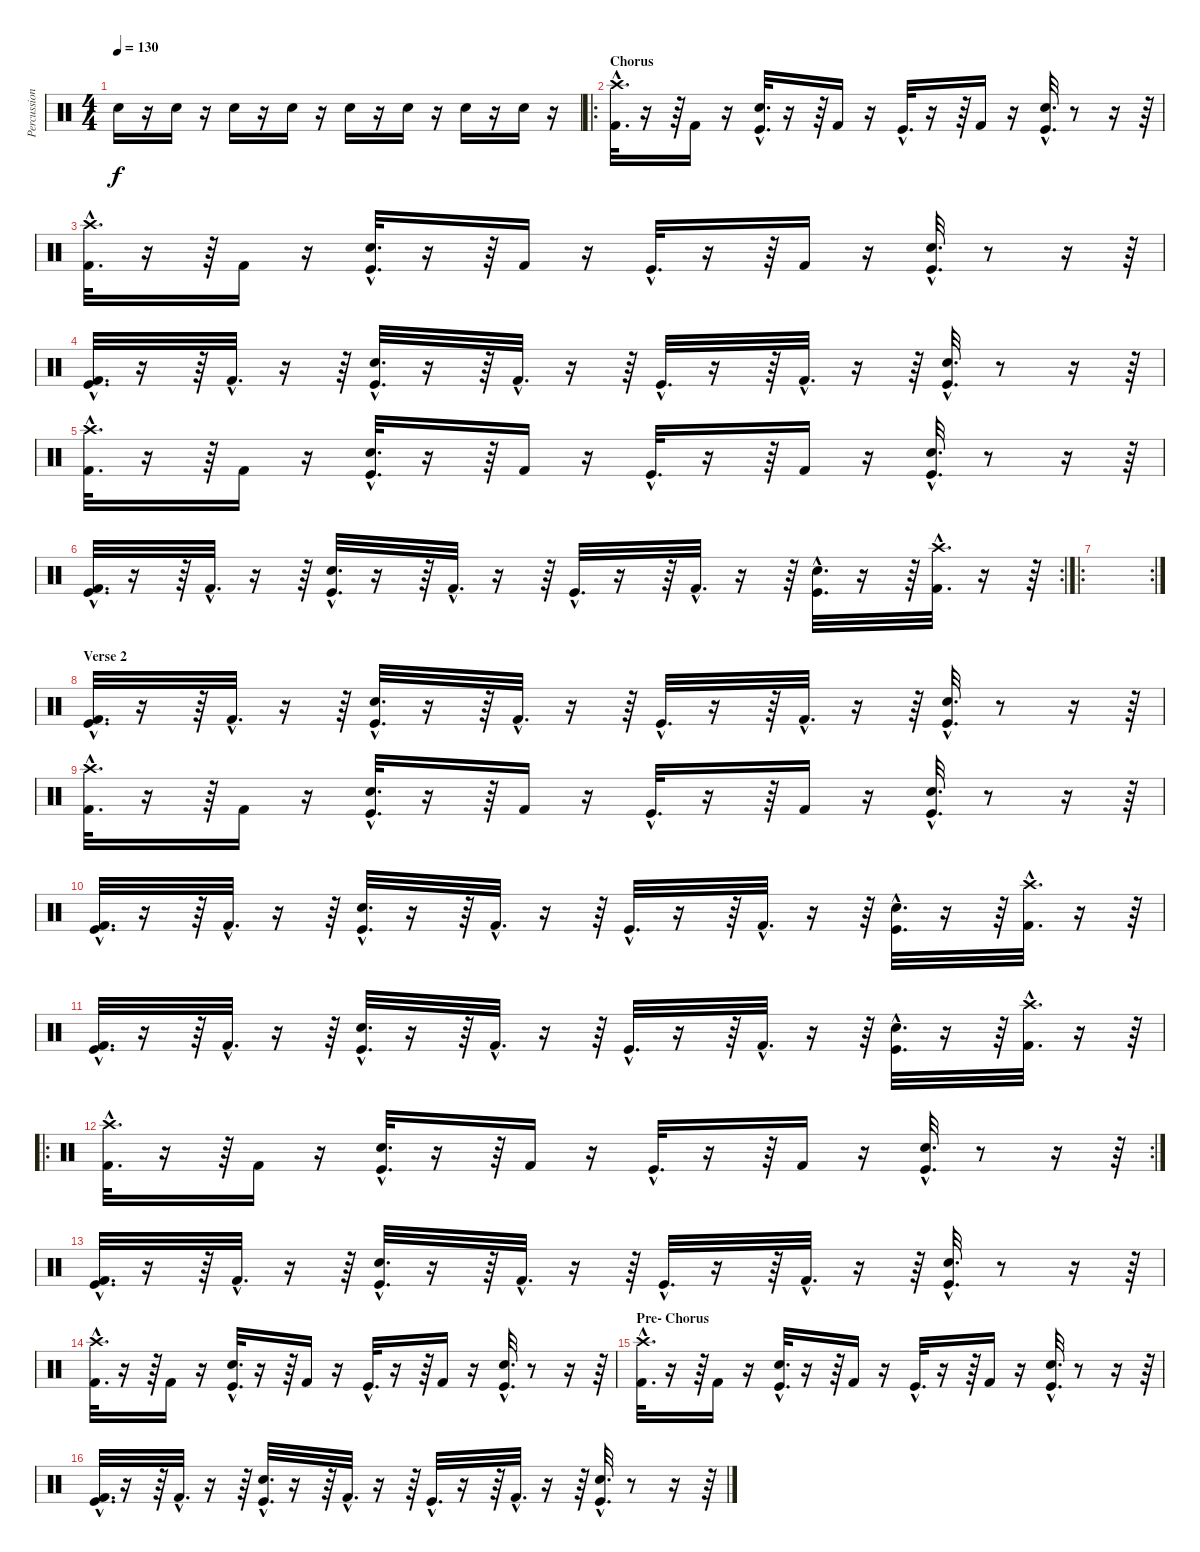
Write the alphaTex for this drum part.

\track ("Percussion" "Percussion") {instrument percussion}
\staff {score}
\articulation defaults
\ts (4 4)
\tempo 130
\clef neutral
\ks c "Snare (hit) 2".16{dy f}
r.16 "Snare (hit) 2".16 r.16 "Snare (hit) 2".16 r.16 "Snare (hit) 2".16 r.16 "Snare (hit) 2".16 r.16 "Snare (hit) 2".16 r.16 "Snare (hit) 2".16 r.16 "Snare (hit) 2".16 r.16 |
\ro
\section ("" "Chorus")
("Kick (hit) 2"{hac} "Crash high (hit)"{hac}).32{d} r.16 r.64 "Kick (hit) 2".16 r.16 ("Kick (hit)"{hac} "Snare (hit) 2"{hac}).32{d} r.16 r.64 "Kick (hit) 2".16 r.16 "Kick (hit)"{hac}.32{d} r.16 r.64 "Kick (hit) 2".16 r.16 ("Kick (hit)"{hac} "Snare (hit) 2"{hac}).32{d} r.8 r.16 r.64 |
("Kick (hit) 2"{hac} "Crash high (hit)"{hac}).32{d} r.16 r.64 "Kick (hit) 2".16 r.16 ("Kick (hit)"{hac} "Snare (hit) 2"{hac}).32{d} r.16 r.64 "Kick (hit) 2".16 r.16 "Kick (hit)"{hac}.32{d} r.16 r.64 "Kick (hit) 2".16 r.16 ("Kick (hit)"{hac} "Snare (hit) 2"{hac}).32{d} r.8 r.16 r.64 |
("Kick (hit)"{hac} "Kick (hit) 2"{hac}).32{d} r.16 r.64 "Kick (hit) 2"{hac}.32{d} r.16 r.64 ("Snare (hit) 2"{hac} "Kick (hit)"{hac}).32{d} r.16 r.64 "Kick (hit) 2"{hac}.32{d} r.16 r.64 "Kick (hit)"{hac}.32{d} r.16 r.64 "Kick (hit) 2"{hac}.32{d} r.16 r.64 ("Snare (hit) 2"{hac} "Kick (hit)"{hac}).32{d} r.8 r.16 r.64 |
("Kick (hit) 2"{hac} "Crash high (hit)"{hac}).32{d} r.16 r.64 "Kick (hit) 2".16 r.16 ("Kick (hit)"{hac} "Snare (hit) 2"{hac}).32{d} r.16 r.64 "Kick (hit) 2".16 r.16 "Kick (hit)"{hac}.32{d} r.16 r.64 "Kick (hit) 2".16 r.16 ("Kick (hit)"{hac} "Snare (hit) 2"{hac}).32{d} r.8 r.16 r.64 |
\rc 2
\section ("" "")
("Kick (hit)"{hac} "Kick (hit) 2"{hac}).32{d} r.16 r.64 "Kick (hit) 2"{hac}.32{d} r.16 r.64 ("Snare (hit) 2"{hac} "Kick (hit)"{hac}).32{d} r.16 r.64 "Kick (hit) 2"{hac}.32{d} r.16 r.64 "Kick (hit)"{hac}.32{d} r.16 r.64 "Kick (hit) 2"{hac}.32{d} r.16 r.64 ("Snare (hit) 2"{hac} "Kick (hit)"{hac}).32{d} r.16 r.64 ("Kick (hit) 2"{hac} "Crash high (hit)"{hac}).32{d} r.16 r.64 |
\ro
\rc 2
|
\section ("" "Verse 2")
("Kick (hit)"{hac} "Kick (hit) 2"{hac}).32{d} r.16 r.64 "Kick (hit) 2"{hac}.32{d} r.16 r.64 ("Snare (hit) 2"{hac} "Kick (hit)"{hac}).32{d} r.16 r.64 "Kick (hit) 2"{hac}.32{d} r.16 r.64 "Kick (hit)"{hac}.32{d} r.16 r.64 "Kick (hit) 2"{hac}.32{d} r.16 r.64 ("Snare (hit) 2"{hac} "Kick (hit)"{hac}).32{d} r.8 r.16 r.64 |
("Kick (hit) 2"{hac} "Crash high (hit)"{hac}).32{d} r.16 r.64 "Kick (hit) 2".16 r.16 ("Kick (hit)"{hac} "Snare (hit) 2"{hac}).32{d} r.16 r.64 "Kick (hit) 2".16 r.16 "Kick (hit)"{hac}.32{d} r.16 r.64 "Kick (hit) 2".16 r.16 ("Kick (hit)"{hac} "Snare (hit) 2"{hac}).32{d} r.8 r.16 r.64 |
("Kick (hit)"{hac} "Kick (hit) 2"{hac}).32{d} r.16 r.64 "Kick (hit) 2"{hac}.32{d} r.16 r.64 ("Snare (hit) 2"{hac} "Kick (hit)"{hac}).32{d} r.16 r.64 "Kick (hit) 2"{hac}.32{d} r.16 r.64 "Kick (hit)"{hac}.32{d} r.16 r.64 "Kick (hit) 2"{hac}.32{d} r.16 r.64 ("Snare (hit) 2"{hac} "Kick (hit)"{hac}).32{d} r.16 r.64 ("Kick (hit) 2"{hac} "Crash high (hit)"{hac}).32{d} r.16 r.64 |
("Kick (hit)"{hac} "Kick (hit) 2"{hac}).32{d} r.16 r.64 "Kick (hit) 2"{hac}.32{d} r.16 r.64 ("Snare (hit) 2"{hac} "Kick (hit)"{hac}).32{d} r.16 r.64 "Kick (hit) 2"{hac}.32{d} r.16 r.64 "Kick (hit)"{hac}.32{d} r.16 r.64 "Kick (hit) 2"{hac}.32{d} r.16 r.64 ("Snare (hit) 2"{hac} "Kick (hit)"{hac}).32{d} r.16 r.64 ("Kick (hit) 2"{hac} "Crash high (hit)"{hac}).32{d} r.16 r.64 |
\ro
\rc 2
("Kick (hit) 2"{hac} "Crash high (hit)"{hac}).32{d} r.16 r.64 "Kick (hit) 2".16 r.16 ("Kick (hit)"{hac} "Snare (hit) 2"{hac}).32{d} r.16 r.64 "Kick (hit) 2".16 r.16 "Kick (hit)"{hac}.32{d} r.16 r.64 "Kick (hit) 2".16 r.16 ("Kick (hit)"{hac} "Snare (hit) 2"{hac}).32{d} r.8 r.16 r.64 |
("Kick (hit)"{hac} "Kick (hit) 2"{hac}).32{d} r.16 r.64 "Kick (hit) 2"{hac}.32{d} r.16 r.64 ("Snare (hit) 2"{hac} "Kick (hit)"{hac}).32{d} r.16 r.64 "Kick (hit) 2"{hac}.32{d} r.16 r.64 "Kick (hit)"{hac}.32{d} r.16 r.64 "Kick (hit) 2"{hac}.32{d} r.16 r.64 ("Snare (hit) 2"{hac} "Kick (hit)"{hac}).32{d} r.8 r.16 r.64 |
("Kick (hit) 2"{hac} "Crash high (hit)"{hac}).32{d} r.16 r.64 "Kick (hit) 2".16 r.16 ("Kick (hit)"{hac} "Snare (hit) 2"{hac}).32{d} r.16 r.64 "Kick (hit) 2".16 r.16 "Kick (hit)"{hac}.32{d} r.16 r.64 "Kick (hit) 2".16 r.16 ("Kick (hit)"{hac} "Snare (hit) 2"{hac}).32{d} r.8 r.16 r.64 |
\section ("" "Pre- Chorus")
("Kick (hit) 2"{hac} "Crash high (hit)"{hac}).32{d} r.16 r.64 "Kick (hit) 2".16 r.16 ("Kick (hit)"{hac} "Snare (hit) 2"{hac}).32{d} r.16 r.64 "Kick (hit) 2".16 r.16 "Kick (hit)"{hac}.32{d} r.16 r.64 "Kick (hit) 2".16 r.16 ("Kick (hit)"{hac} "Snare (hit) 2"{hac}).32{d} r.8 r.16 r.64 |
("Kick (hit)"{hac} "Kick (hit) 2"{hac}).32{d} r.16 r.64 "Kick (hit) 2"{hac}.32{d} r.16 r.64 ("Snare (hit) 2"{hac} "Kick (hit)"{hac}).32{d} r.16 r.64 "Kick (hit) 2"{hac}.32{d} r.16 r.64 "Kick (hit)"{hac}.32{d} r.16 r.64 "Kick (hit) 2"{hac}.32{d} r.16 r.64 ("Snare (hit) 2"{hac} "Kick (hit)"{hac}).32{d} r.8 r.16 r.64
